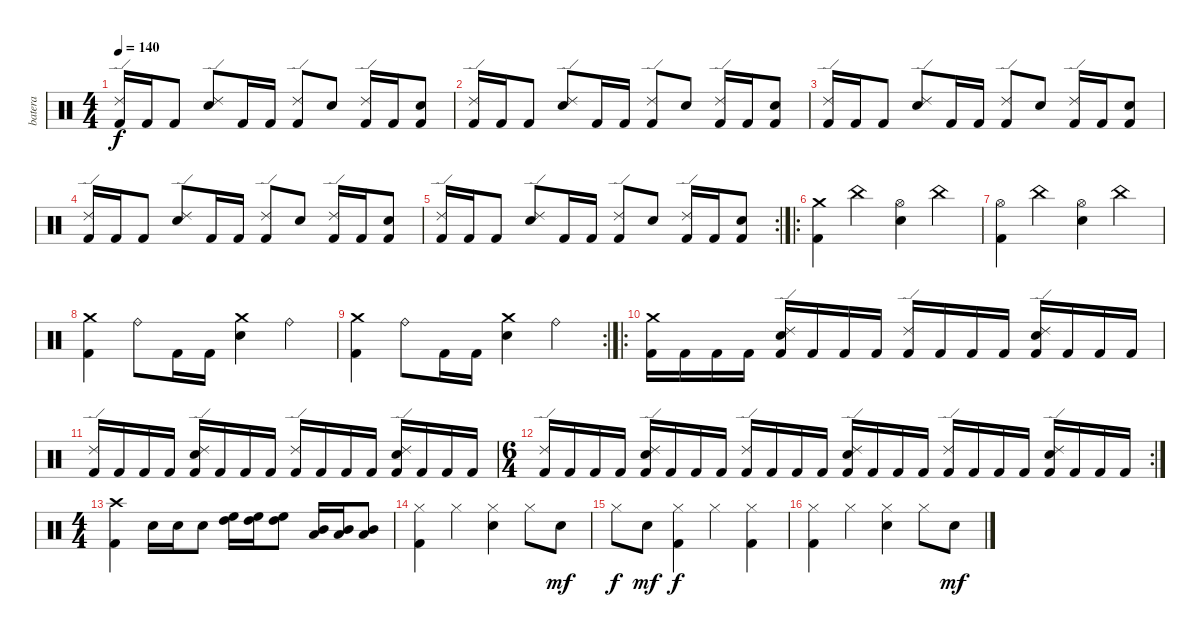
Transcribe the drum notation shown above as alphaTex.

\track ("batera" "batera") {instrument percussion}
\staff {score}
\articulation defaults
\ts (4 4)
\tempo 140
\clef neutral
\ks c
("Ride (edge) 2" "Kick (hit) 2").16{dy f} "Kick (hit) 2".16 "Kick (hit) 2".8 ("Ride (edge) 2" "Electric Snare (hit)").8 "Kick (hit) 2".16 "Kick (hit) 2".16 ("Ride (edge) 2" "Kick (hit) 2").8 "Electric Snare (hit)".8 ("Ride (edge) 2" "Kick (hit) 2").16 "Kick (hit) 2".16 ("Electric Snare (hit)" "Kick (hit) 2").8 |
("Ride (edge) 2" "Kick (hit) 2").16 "Kick (hit) 2".16 "Kick (hit) 2".8 ("Ride (edge) 2" "Electric Snare (hit)").8 "Kick (hit) 2".16 "Kick (hit) 2".16 ("Ride (edge) 2" "Kick (hit) 2").8 "Electric Snare (hit)".8 ("Ride (edge) 2" "Kick (hit) 2").16 "Kick (hit) 2".16 ("Electric Snare (hit)" "Kick (hit) 2").8 |
("Ride (edge) 2" "Kick (hit) 2").16 "Kick (hit) 2".16 "Kick (hit) 2".8 ("Ride (edge) 2" "Electric Snare (hit)").8 "Kick (hit) 2".16 "Kick (hit) 2".16 ("Ride (edge) 2" "Kick (hit) 2").8 "Electric Snare (hit)".8 ("Ride (edge) 2" "Kick (hit) 2").16 "Kick (hit) 2".16 ("Electric Snare (hit)" "Kick (hit) 2").8 |
("Ride (edge) 2" "Kick (hit) 2").16 "Kick (hit) 2".16 "Kick (hit) 2".8 ("Ride (edge) 2" "Electric Snare (hit)").8 "Kick (hit) 2".16 "Kick (hit) 2".16 ("Ride (edge) 2" "Kick (hit) 2").8 "Electric Snare (hit)".8 ("Ride (edge) 2" "Kick (hit) 2").16 "Kick (hit) 2".16 ("Electric Snare (hit)" "Kick (hit) 2").8 |
\rc 2
("Ride (edge) 2" "Kick (hit) 2").16 "Kick (hit) 2".16 "Kick (hit) 2".8 ("Ride (edge) 2" "Electric Snare (hit)").8 "Kick (hit) 2".16 "Kick (hit) 2".16 ("Ride (edge) 2" "Kick (hit) 2").8 "Electric Snare (hit)".8 ("Ride (edge) 2" "Kick (hit) 2").16 "Kick (hit) 2".16 ("Electric Snare (hit)" "Kick (hit) 2").8 |
\ro
("Crash medium (hit)" "Kick (hit) 2").4 "China (hit)".4 ("Hi-Hat (open)" "Electric Snare (hit)").4 "China (hit)".4 |
("Hi-Hat (open)" "Kick (hit) 2").4 "China (hit)".4 ("Hi-Hat (open)" "Electric Snare (hit)").4 "China (hit)".4 |
("Crash medium (hit)" "Kick (hit) 2").4 "Ride (bell)".8 "Kick (hit) 2".16 "Kick (hit) 2".16 ("Crash medium (hit)" "Electric Snare (hit)").4 "Ride (bell)".4 |
\rc 2
("Crash medium (hit)" "Kick (hit) 2").4 "Ride (bell)".8 "Kick (hit) 2".16 "Kick (hit) 2".16 ("Crash medium (hit)" "Electric Snare (hit)").4 "Ride (bell)".4 |
\ro
("Crash medium (hit)" "Kick (hit) 2").16 "Kick (hit) 2".16 "Kick (hit) 2".16 "Kick (hit) 2".16 ("Ride (edge) 2" "Electric Snare (hit)" "Kick (hit) 2").16 "Kick (hit) 2".16 "Kick (hit) 2".16 "Kick (hit) 2".16 ("Ride (edge) 2" "Kick (hit) 2").16 "Kick (hit) 2".16 "Kick (hit) 2".16 "Kick (hit) 2".16 ("Ride (edge) 2" "Electric Snare (hit)" "Kick (hit) 2").16 "Kick (hit) 2".16 "Kick (hit) 2".16 "Kick (hit) 2".16 |
("Ride (edge) 2" "Kick (hit) 2").16 "Kick (hit) 2".16 "Kick (hit) 2".16 "Kick (hit) 2".16 ("Ride (edge) 2" "Electric Snare (hit)" "Kick (hit) 2").16 "Kick (hit) 2".16 "Kick (hit) 2".16 "Kick (hit) 2".16 ("Ride (edge) 2" "Kick (hit) 2").16 "Kick (hit) 2".16 "Kick (hit) 2".16 "Kick (hit) 2".16 ("Ride (edge) 2" "Electric Snare (hit)" "Kick (hit) 2").16 "Kick (hit) 2".16 "Kick (hit) 2".16 "Kick (hit) 2".16 |
\rc 2
\ts (6 4)
("Ride (edge) 2" "Kick (hit) 2").16 "Kick (hit) 2".16 "Kick (hit) 2".16 "Kick (hit) 2".16 ("Ride (edge) 2" "Electric Snare (hit)" "Kick (hit) 2").16 "Kick (hit) 2".16 "Kick (hit) 2".16 "Kick (hit) 2".16 ("Ride (edge) 2" "Kick (hit) 2").16 "Kick (hit) 2".16 "Kick (hit) 2".16 "Kick (hit) 2".16 ("Ride (edge) 2" "Electric Snare (hit)" "Kick (hit) 2").16 "Kick (hit) 2".16 "Kick (hit) 2".16 "Kick (hit) 2".16 ("Ride (edge) 2" "Kick (hit) 2").16 "Kick (hit) 2".16 "Kick (hit) 2".16 "Kick (hit) 2".16 ("Ride (edge) 2" "Electric Snare (hit)" "Kick (hit) 2").16 "Kick (hit) 2".16 "Kick (hit) 2".16 "Kick (hit) 2".16 |
\ts (4 4)
("Crash high (hit)" "Kick (hit) 2").4 "Electric Snare (hit)".16 "Electric Snare (hit)".16 "Electric Snare (hit)".8 ("High Floor Tom (hit)" "High Tom (hit)").16 ("High Floor Tom (hit)" "High Tom (hit)").16 ("High Floor Tom (hit)" "High Tom (hit)").8 ("Low Tom (hit)" "Mid Tom (hit)").16 ("Low Tom (hit)" "Mid Tom (hit)").16 ("Low Tom (hit)" "Mid Tom (hit)").8 |
("Hi-Hat (closed)" "Kick (hit) 2").4 "Hi-Hat (closed)".4 ("Hi-Hat (closed)" "Electric Snare (hit)").4 "Hi-Hat (closed)".8 "Electric Snare (hit)".8{dy mf} |
"Hi-Hat (closed)".8{dy f} "Electric Snare (hit)".8{dy mf} ("Hi-Hat (closed)" "Kick (hit) 2").4{dy f} "Hi-Hat (closed)".4 ("Hi-Hat (closed)" "Kick (hit) 2").4 |
("Hi-Hat (closed)" "Kick (hit) 2").4 "Hi-Hat (closed)".4 ("Hi-Hat (closed)" "Electric Snare (hit)").4 "Hi-Hat (closed)".8 "Electric Snare (hit)".8{dy mf}
